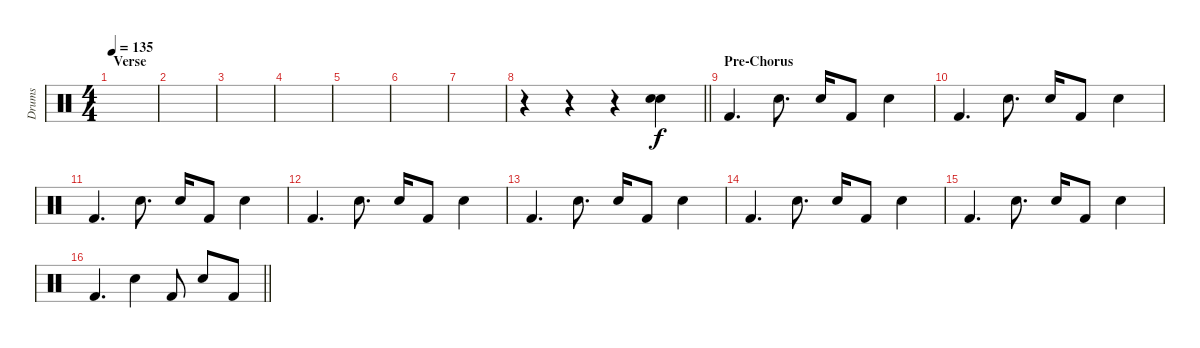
\track ("Drums" "Drums") {instrument percussion}
\staff {score}
\articulation defaults
\ts (4 4)
\section ("" "Verse")
\tempo 135
\clef neutral
\ks c
|
|
|
|
|
|
|
\barLineRight lightlight
r.4 r.4 r.4 ("Electric Snare (hit)" "Electric Snare (hit)").4 |
\section ("" "Pre-Chorus")
"Kick (hit) 2".4{d} "Electric Snare (hit)".8{d} "Electric Snare (hit)".16 "Kick (hit) 2".8 "Electric Snare (hit)".4 |
"Kick (hit) 2".4{d} "Electric Snare (hit)".8{d} "Electric Snare (hit)".16 "Kick (hit) 2".8 "Electric Snare (hit)".4 |
"Kick (hit) 2".4{d} "Electric Snare (hit)".8{d} "Electric Snare (hit)".16 "Kick (hit) 2".8 "Electric Snare (hit)".4 |
"Kick (hit) 2".4{d} "Electric Snare (hit)".8{d} "Electric Snare (hit)".16 "Kick (hit) 2".8 "Electric Snare (hit)".4 |
"Kick (hit) 2".4{d} "Electric Snare (hit)".8{d} "Electric Snare (hit)".16 "Kick (hit) 2".8 "Electric Snare (hit)".4 |
"Kick (hit) 2".4{d} "Electric Snare (hit)".8{d} "Electric Snare (hit)".16 "Kick (hit) 2".8 "Electric Snare (hit)".4 |
"Kick (hit) 2".4{d} "Electric Snare (hit)".8{d} "Electric Snare (hit)".16 "Kick (hit) 2".8 "Electric Snare (hit)".4 |
\barLineRight lightlight "Kick (hit) 2".4{d} "Electric Snare (hit)".4 "Kick (hit) 2".8 "Electric Snare (hit)".8 "Kick (hit) 2".8
